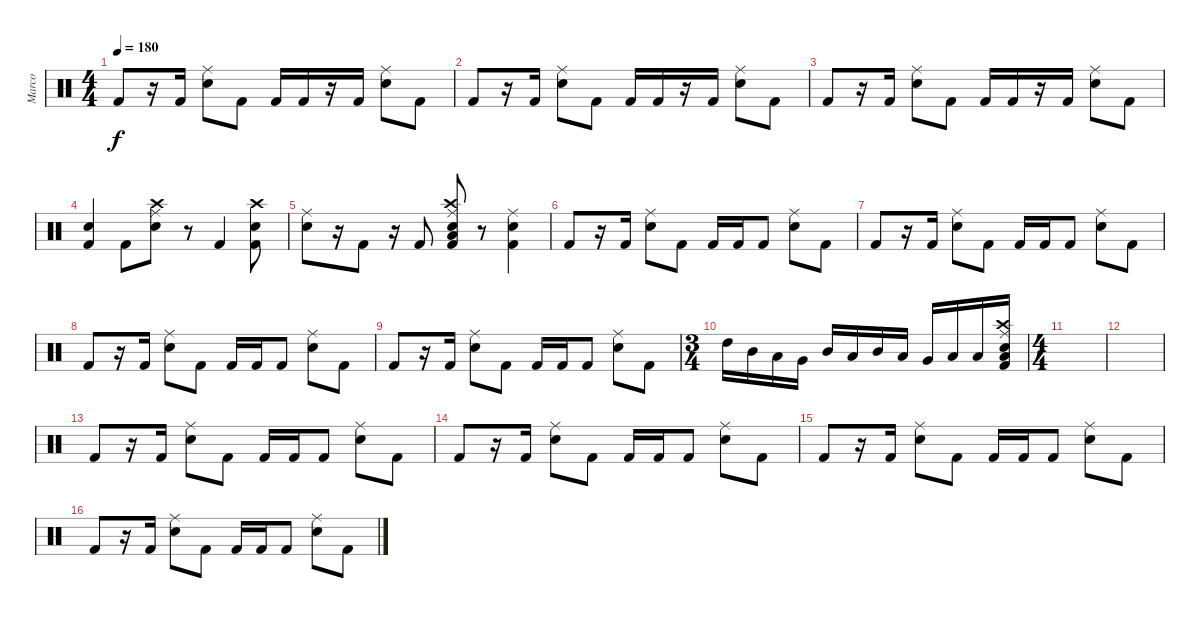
\track ("Marco" "Marco") {instrument percussion}
\staff {score}
\articulation defaults
\ts (4 4)
\tempo 180
\clef neutral
\ks c "Kick (hit) 2".8{dy f}
r.16 "Kick (hit) 2".16 ("Electric Snare (hit)" "Ride (middle)").8 "Kick (hit) 2".8 "Kick (hit) 2".16 "Kick (hit) 2".16 r.16 "Kick (hit) 2".16 ("Electric Snare (hit)" "Ride (middle)").8 "Kick (hit) 2".8 |
"Kick (hit) 2".8 r.16 "Kick (hit) 2".16 ("Electric Snare (hit)" "Ride (middle)").8 "Kick (hit) 2".8 "Kick (hit) 2".16 "Kick (hit) 2".16 r.16 "Kick (hit) 2".16 ("Electric Snare (hit)" "Ride (middle)").8 "Kick (hit) 2".8 |
"Kick (hit) 2".8 r.16 "Kick (hit) 2".16 ("Electric Snare (hit)" "Ride (middle)").8 "Kick (hit) 2".8 "Kick (hit) 2".16 "Kick (hit) 2".16 r.16 "Kick (hit) 2".16 ("Electric Snare (hit)" "Ride (middle)").8 "Kick (hit) 2".8 |
("Kick (hit) 2" "Electric Snare (hit)").4 "Kick (hit) 2".8 ("Electric Snare (hit)" "Ride (middle)" "Crash high (hit)").8 r.8 "Kick (hit) 2".4 ("Kick (hit) 2" "Electric Snare (hit)" "Crash high (hit)").8 |
("Electric Snare (hit)" "Ride (middle)").8 r.16 "Kick (hit) 2".8 r.16 "Kick (hit) 2".8 ("Kick (hit) 2" "Ride (middle)" "Electric Snare (hit)" "Low Tom (hit)" "Crash high (hit)").8 r.8 ("Kick (hit) 2" "Electric Snare (hit)" "Ride (middle)").4 |
"Kick (hit) 2".8 r.16 "Kick (hit) 2".16 ("Electric Snare (hit)" "Ride (middle)").8 "Kick (hit) 2".8 "Kick (hit) 2".16 "Kick (hit) 2".16 "Kick (hit) 2".8 ("Electric Snare (hit)" "Ride (middle)").8 "Kick (hit) 2".8 |
"Kick (hit) 2".8 r.16 "Kick (hit) 2".16 ("Electric Snare (hit)" "Ride (middle)").8 "Kick (hit) 2".8 "Kick (hit) 2".16 "Kick (hit) 2".16 "Kick (hit) 2".8 ("Electric Snare (hit)" "Ride (middle)").8 "Kick (hit) 2".8 |
"Kick (hit) 2".8 r.16 "Kick (hit) 2".16 ("Electric Snare (hit)" "Ride (middle)").8 "Kick (hit) 2".8 "Kick (hit) 2".16 "Kick (hit) 2".16 "Kick (hit) 2".8 ("Electric Snare (hit)" "Ride (middle)").8 "Kick (hit) 2".8 |
"Kick (hit) 2".8 r.16 "Kick (hit) 2".16 ("Electric Snare (hit)" "Ride (middle)").8 "Kick (hit) 2".8 "Kick (hit) 2".16 "Kick (hit) 2".16 "Kick (hit) 2".8 ("Electric Snare (hit)" "Ride (middle)").8 "Kick (hit) 2".8 |
\ts (3 4)
"High Tom (hit)".16 "Mid Tom (hit)".16 "Low Tom (hit)".16 "Very Low Tom (hit)".16 "Mid Tom (hit)".16 "Low Tom (hit)".16 "Mid Tom (hit)".16 "Low Tom (hit)".16 "Very Low Tom (hit)".16 "Low Floor Tom (hit)".16 "Low Tom (hit)".16 ("Kick (hit) 2" "Crash high (hit)" "Electric Snare (hit)" "Ride (middle)" "Low Tom (hit)").16 |
\ts (4 4)
|
|
"Kick (hit) 2".8 r.16 "Kick (hit) 2".16 ("Electric Snare (hit)" "Ride (middle)").8 "Kick (hit) 2".8 "Kick (hit) 2".16 "Kick (hit) 2".16 "Kick (hit) 2".8 ("Electric Snare (hit)" "Ride (middle)").8 "Kick (hit) 2".8 |
"Kick (hit) 2".8 r.16 "Kick (hit) 2".16 ("Electric Snare (hit)" "Ride (middle)").8 "Kick (hit) 2".8 "Kick (hit) 2".16 "Kick (hit) 2".16 "Kick (hit) 2".8 ("Electric Snare (hit)" "Ride (middle)").8 "Kick (hit) 2".8 |
"Kick (hit) 2".8 r.16 "Kick (hit) 2".16 ("Electric Snare (hit)" "Ride (middle)").8 "Kick (hit) 2".8 "Kick (hit) 2".16 "Kick (hit) 2".16 "Kick (hit) 2".8 ("Electric Snare (hit)" "Ride (middle)").8 "Kick (hit) 2".8 |
"Kick (hit) 2".8 r.16 "Kick (hit) 2".16 ("Electric Snare (hit)" "Ride (middle)").8 "Kick (hit) 2".8 "Kick (hit) 2".16 "Kick (hit) 2".16 "Kick (hit) 2".8 ("Electric Snare (hit)" "Ride (middle)").8 "Kick (hit) 2".8
